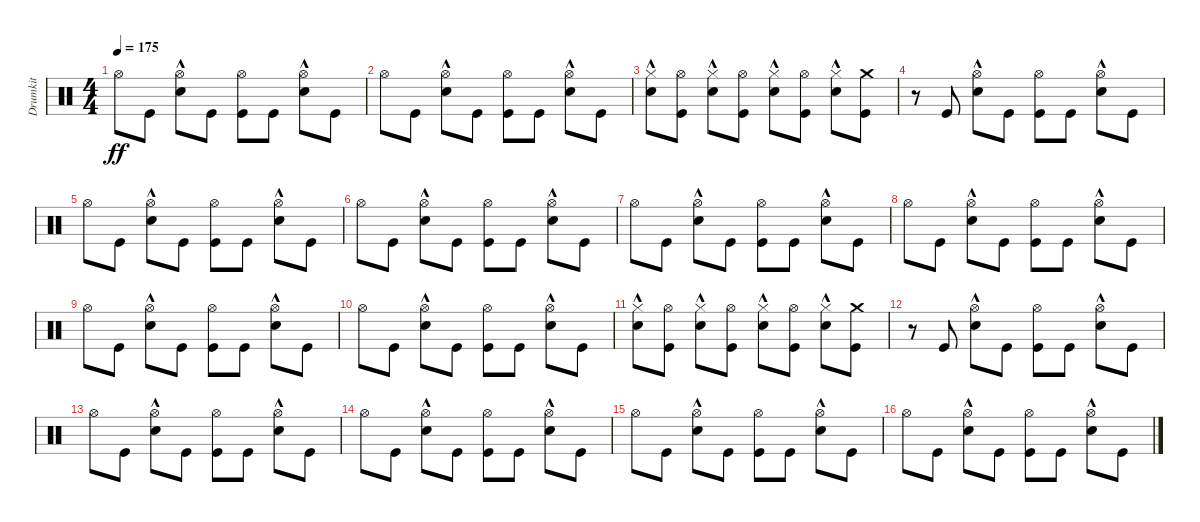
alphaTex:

\track ("Drumkit" "Drumkit") {instrument percussion}
\staff {score}
\articulation defaults
\ts (4 4)
\tempo 175
\clef neutral
\ks c "Hi-Hat (open)".8{dy ff} "Kick (hit)".8
("Snare (hit) 2"{hac} "Hi-Hat (open)").8 "Kick (hit)".8 ("Kick (hit)" "Hi-Hat (open)").8 "Kick (hit)".8 ("Snare (hit) 2"{hac} "Hi-Hat (open)").8 "Kick (hit)".8 |
"Hi-Hat (open)".8 "Kick (hit)".8 ("Snare (hit) 2"{hac} "Hi-Hat (open)").8 "Kick (hit)".8 ("Kick (hit)" "Hi-Hat (open)").8 "Kick (hit)".8 ("Snare (hit) 2"{hac} "Hi-Hat (open)").8 "Kick (hit)".8 |
("Snare (hit) 2"{hac} "Hi-Hat (closed)").8 ("Kick (hit)" "Hi-Hat (open)").8 ("Snare (hit) 2"{hac} "Hi-Hat (closed)").8 ("Kick (hit)" "Hi-Hat (open)").8 ("Snare (hit) 2"{hac} "Hi-Hat (closed)").8 ("Kick (hit)" "Hi-Hat (open)").8 ("Snare (hit) 2"{hac} "Hi-Hat (closed)").8 ("Kick (hit)" "Crash medium (hit)").8 |
r.8 "Kick (hit)".8 ("Snare (hit) 2"{hac} "Hi-Hat (open)").8 "Kick (hit)".8 ("Kick (hit)" "Hi-Hat (open)").8 "Kick (hit)".8 ("Snare (hit) 2"{hac} "Hi-Hat (open)").8 "Kick (hit)".8 |
"Hi-Hat (open)".8 "Kick (hit)".8 ("Snare (hit) 2"{hac} "Hi-Hat (open)").8 "Kick (hit)".8 ("Kick (hit)" "Hi-Hat (open)").8 "Kick (hit)".8 ("Snare (hit) 2"{hac} "Hi-Hat (open)").8 "Kick (hit)".8 |
"Hi-Hat (open)".8 "Kick (hit)".8 ("Snare (hit) 2"{hac} "Hi-Hat (open)").8 "Kick (hit)".8 ("Kick (hit)" "Hi-Hat (open)").8 "Kick (hit)".8 ("Snare (hit) 2"{hac} "Hi-Hat (open)").8 "Kick (hit)".8 |
"Hi-Hat (open)".8 "Kick (hit)".8 ("Snare (hit) 2"{hac} "Hi-Hat (open)").8 "Kick (hit)".8 ("Kick (hit)" "Hi-Hat (open)").8 "Kick (hit)".8 ("Snare (hit) 2"{hac} "Hi-Hat (open)").8 "Kick (hit)".8 |
"Hi-Hat (open)".8 "Kick (hit)".8 ("Snare (hit) 2"{hac} "Hi-Hat (open)").8 "Kick (hit)".8 ("Kick (hit)" "Hi-Hat (open)").8 "Kick (hit)".8 ("Snare (hit) 2"{hac} "Hi-Hat (open)").8 "Kick (hit)".8 |
"Hi-Hat (open)".8 "Kick (hit)".8 ("Snare (hit) 2"{hac} "Hi-Hat (open)").8 "Kick (hit)".8 ("Kick (hit)" "Hi-Hat (open)").8 "Kick (hit)".8 ("Snare (hit) 2"{hac} "Hi-Hat (open)").8 "Kick (hit)".8 |
"Hi-Hat (open)".8 "Kick (hit)".8 ("Snare (hit) 2"{hac} "Hi-Hat (open)").8 "Kick (hit)".8 ("Kick (hit)" "Hi-Hat (open)").8 "Kick (hit)".8 ("Snare (hit) 2"{hac} "Hi-Hat (open)").8 "Kick (hit)".8 |
("Snare (hit) 2"{hac} "Hi-Hat (closed)").8 ("Kick (hit)" "Hi-Hat (open)").8 ("Snare (hit) 2"{hac} "Hi-Hat (closed)").8 ("Kick (hit)" "Hi-Hat (open)").8 ("Snare (hit) 2"{hac} "Hi-Hat (closed)").8 ("Kick (hit)" "Hi-Hat (open)").8 ("Snare (hit) 2"{hac} "Hi-Hat (closed)").8 ("Kick (hit)" "Crash medium (hit)").8 |
r.8 "Kick (hit)".8 ("Snare (hit) 2"{hac} "Hi-Hat (open)").8 "Kick (hit)".8 ("Kick (hit)" "Hi-Hat (open)").8 "Kick (hit)".8 ("Snare (hit) 2"{hac} "Hi-Hat (open)").8 "Kick (hit)".8 |
"Hi-Hat (open)".8 "Kick (hit)".8 ("Snare (hit) 2"{hac} "Hi-Hat (open)").8 "Kick (hit)".8 ("Kick (hit)" "Hi-Hat (open)").8 "Kick (hit)".8 ("Snare (hit) 2"{hac} "Hi-Hat (open)").8 "Kick (hit)".8 |
"Hi-Hat (open)".8 "Kick (hit)".8 ("Snare (hit) 2"{hac} "Hi-Hat (open)").8 "Kick (hit)".8 ("Kick (hit)" "Hi-Hat (open)").8 "Kick (hit)".8 ("Snare (hit) 2"{hac} "Hi-Hat (open)").8 "Kick (hit)".8 |
"Hi-Hat (open)".8 "Kick (hit)".8 ("Snare (hit) 2"{hac} "Hi-Hat (open)").8 "Kick (hit)".8 ("Kick (hit)" "Hi-Hat (open)").8 "Kick (hit)".8 ("Snare (hit) 2"{hac} "Hi-Hat (open)").8 "Kick (hit)".8 |
"Hi-Hat (open)".8 "Kick (hit)".8 ("Snare (hit) 2"{hac} "Hi-Hat (open)").8 "Kick (hit)".8 ("Kick (hit)" "Hi-Hat (open)").8 "Kick (hit)".8 ("Snare (hit) 2"{hac} "Hi-Hat (open)").8 "Kick (hit)".8
